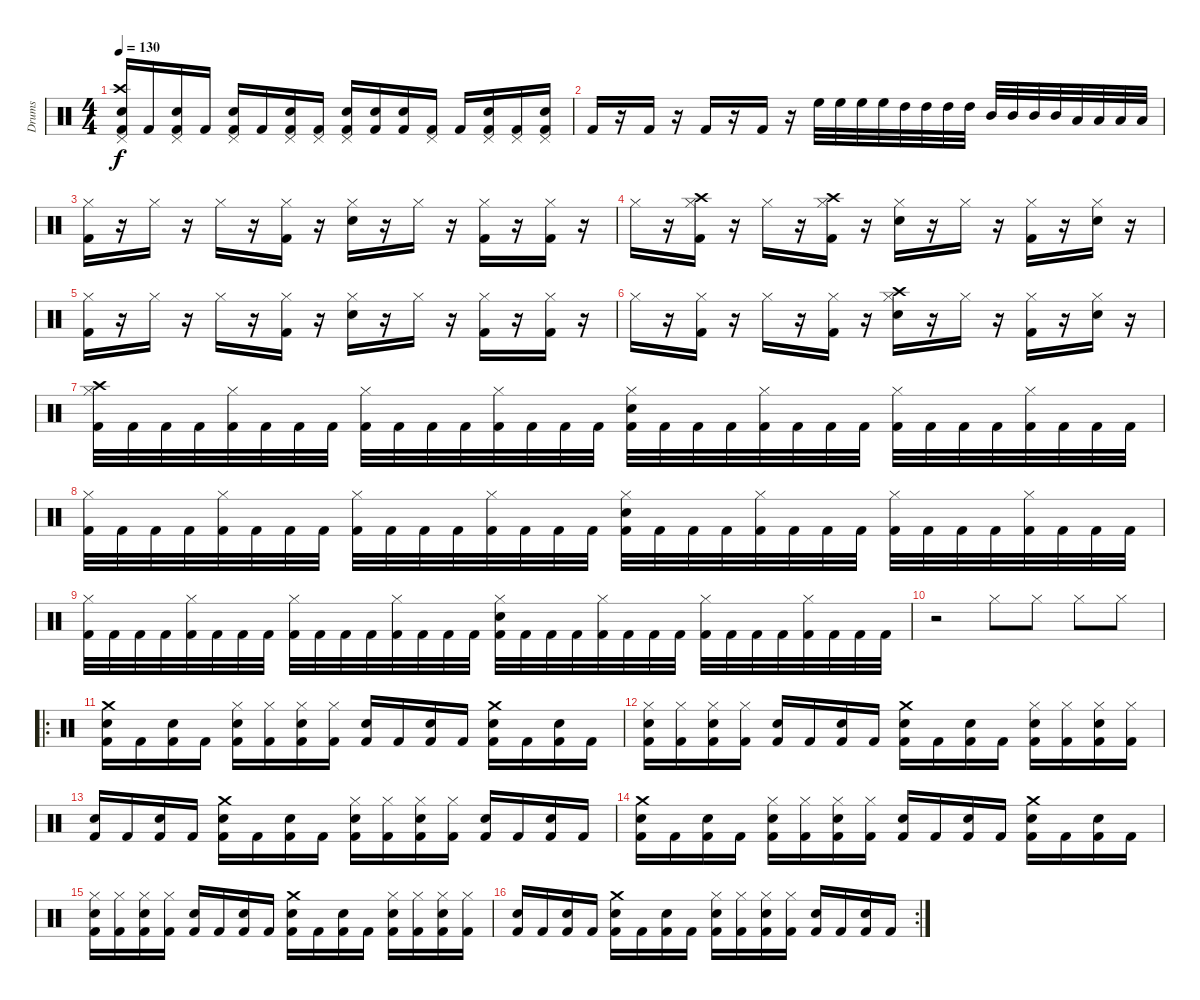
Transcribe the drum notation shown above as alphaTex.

\track ("Drums" "Drums") {instrument percussion}
\staff {score}
\articulation defaults
\ts (4 4)
\tempo 130
\clef neutral
\ks c
("Pedal Hi-Hat (hit)" "Crash high (hit)" "Electric Snare (hit)" "Kick (hit) 2").16{dy f} "Kick (hit) 2".16 ("Pedal Hi-Hat (hit)" "Electric Snare (hit)" "Kick (hit) 2").16 "Kick (hit) 2".16 ("Pedal Hi-Hat (hit)" "Electric Snare (hit)" "Kick (hit) 2").16 "Kick (hit) 2".16 ("Pedal Hi-Hat (hit)" "Electric Snare (hit)" "Kick (hit) 2").16 ("Pedal Hi-Hat (hit)" "Kick (hit) 2").16 ("Pedal Hi-Hat (hit)" "Electric Snare (hit)" "Kick (hit) 2").16 ("Snare (hit)" "Kick (hit) 2").16 ("Electric Snare (hit)" "Kick (hit) 2").16 ("Pedal Hi-Hat (hit)" "Kick (hit) 2").16 "Kick (hit) 2".16 ("Pedal Hi-Hat (hit)" "Electric Snare (hit)" "Kick (hit) 2").16 ("Pedal Hi-Hat (hit)" "Kick (hit) 2").16 ("Pedal Hi-Hat (hit)" "Electric Snare (hit)" "Kick (hit) 2").16 |
"Kick (hit) 2".16 r.16 "Kick (hit) 2".16 r.16 "Kick (hit) 2".16 r.16 "Kick (hit) 2".16 r.16 "High Floor Tom (hit)".32 "High Floor Tom (hit)".32 "High Floor Tom (hit)".32 "High Floor Tom (hit)".32 "High Tom (hit)".32 "High Tom (hit)".32 "High Tom (hit)".32 "High Tom (hit)".32 "Mid Tom (hit)".32 "Mid Tom (hit)".32 "Mid Tom (hit)".32 "Mid Tom (hit)".32 "Low Tom (hit)".32 "Low Tom (hit)".32 "Low Tom (hit)".32 "Low Tom (hit)".32 |
("Hi-Hat (closed)" "Kick (hit) 2").16 r.16 "Hi-Hat (closed)".16 r.16 "Hi-Hat (closed)".16 r.16 ("Hi-Hat (closed)" "Kick (hit) 2").16 r.16 ("Hi-Hat (closed)" "Electric Snare (hit)").16 r.16 "Hi-Hat (closed)".16 r.16 ("Hi-Hat (closed)" "Kick (hit) 2").16 r.16 ("Hi-Hat (closed)" "Kick (hit) 2").16 r.16 |
"Hi-Hat (closed)".16 r.16 ("Hi-Hat (closed)" "Crash high (hit)" "Kick (hit) 2").16 r.16 "Hi-Hat (closed)".16 r.16 ("Hi-Hat (closed)" "Crash high (hit)" "Kick (hit) 2").16 r.16 ("Hi-Hat (closed)" "Electric Snare (hit)").16 r.16 "Hi-Hat (closed)".16 r.16 ("Hi-Hat (closed)" "Kick (hit) 2").16 r.16 ("Hi-Hat (closed)" "Electric Snare (hit)").16 r.16 |
("Hi-Hat (closed)" "Kick (hit) 2").16 r.16 "Hi-Hat (closed)".16 r.16 "Hi-Hat (closed)".16 r.16 ("Hi-Hat (closed)" "Kick (hit) 2").16 r.16 ("Hi-Hat (closed)" "Electric Snare (hit)").16 r.16 "Hi-Hat (closed)".16 r.16 ("Hi-Hat (closed)" "Kick (hit) 2").16 r.16 ("Hi-Hat (closed)" "Kick (hit) 2").16 r.16 |
"Hi-Hat (closed)".16 r.16 ("Hi-Hat (closed)" "Kick (hit) 2").16 r.16 "Hi-Hat (closed)".16 r.16 ("Hi-Hat (closed)" "Kick (hit) 2").16 r.16 ("Hi-Hat (closed)" "Crash high (hit)" "Electric Snare (hit)").16 r.16 "Hi-Hat (closed)".16 r.16 ("Hi-Hat (closed)" "Kick (hit) 2").16 r.16 ("Hi-Hat (closed)" "Electric Snare (hit)").16 r.16 |
("Hi-Hat (closed)" "Crash high (hit)" "Kick (hit) 2").32 "Kick (hit) 2".32 "Kick (hit) 2".32 "Kick (hit) 2".32 ("Hi-Hat (closed)" "Kick (hit) 2").32 "Kick (hit) 2".32 "Kick (hit) 2".32 "Kick (hit) 2".32 ("Hi-Hat (closed)" "Kick (hit) 2").32 "Kick (hit) 2".32 "Kick (hit) 2".32 "Kick (hit) 2".32 ("Hi-Hat (closed)" "Kick (hit) 2").32 "Kick (hit) 2".32 "Kick (hit) 2".32 "Kick (hit) 2".32 ("Hi-Hat (closed)" "Electric Snare (hit)" "Kick (hit) 2").32 "Kick (hit) 2".32 "Kick (hit) 2".32 "Kick (hit) 2".32 ("Hi-Hat (closed)" "Kick (hit) 2").32 "Kick (hit) 2".32 "Kick (hit) 2".32 "Kick (hit) 2".32 ("Hi-Hat (closed)" "Kick (hit) 2").32 "Kick (hit) 2".32 "Kick (hit) 2".32 "Kick (hit) 2".32 ("Hi-Hat (closed)" "Kick (hit) 2").32 "Kick (hit) 2".32 "Kick (hit) 2".32 "Kick (hit) 2".32 |
("Hi-Hat (closed)" "Kick (hit) 2").32 "Kick (hit) 2".32 "Kick (hit) 2".32 "Kick (hit) 2".32 ("Hi-Hat (closed)" "Kick (hit) 2").32 "Kick (hit) 2".32 "Kick (hit) 2".32 "Kick (hit) 2".32 ("Hi-Hat (closed)" "Kick (hit) 2").32 "Kick (hit) 2".32 "Kick (hit) 2".32 "Kick (hit) 2".32 ("Hi-Hat (closed)" "Kick (hit) 2").32 "Kick (hit) 2".32 "Kick (hit) 2".32 "Kick (hit) 2".32 ("Hi-Hat (closed)" "Electric Snare (hit)" "Kick (hit) 2").32 "Kick (hit) 2".32 "Kick (hit) 2".32 "Kick (hit) 2".32 ("Hi-Hat (closed)" "Kick (hit) 2").32 "Kick (hit) 2".32 "Kick (hit) 2".32 "Kick (hit) 2".32 ("Hi-Hat (closed)" "Kick (hit) 2").32 "Kick (hit) 2".32 "Kick (hit) 2".32 "Kick (hit) 2".32 ("Hi-Hat (closed)" "Kick (hit) 2").32 "Kick (hit) 2".32 "Kick (hit) 2".32 "Kick (hit) 2".32 |
("Hi-Hat (closed)" "Kick (hit) 2").32 "Kick (hit) 2".32 "Kick (hit) 2".32 "Kick (hit) 2".32 ("Hi-Hat (closed)" "Kick (hit) 2").32 "Kick (hit) 2".32 "Kick (hit) 2".32 "Kick (hit) 2".32 ("Hi-Hat (closed)" "Kick (hit) 2").32 "Kick (hit) 2".32 "Kick (hit) 2".32 "Kick (hit) 2".32 ("Hi-Hat (closed)" "Kick (hit) 2").32 "Kick (hit) 2".32 "Kick (hit) 2".32 "Kick (hit) 2".32 ("Hi-Hat (closed)" "Electric Snare (hit)" "Kick (hit) 2").32 "Kick (hit) 2".32 "Kick (hit) 2".32 "Kick (hit) 2".32 ("Hi-Hat (closed)" "Kick (hit) 2").32 "Kick (hit) 2".32 "Kick (hit) 2".32 "Kick (hit) 2".32 ("Hi-Hat (closed)" "Kick (hit) 2").32 "Kick (hit) 2".32 "Kick (hit) 2".32 "Kick (hit) 2".32 ("Hi-Hat (closed)" "Kick (hit) 2").32 "Kick (hit) 2".32 "Kick (hit) 2".32 "Kick (hit) 2".32 |
r.2 "Hi-Hat (closed)".8 "Hi-Hat (closed)".8 "Hi-Hat (closed)".8 "Hi-Hat (closed)".8 |
\ro
("Crash medium (hit)" "Electric Snare (hit)" "Kick (hit) 2").16 "Kick (hit) 2".16 ("Electric Snare (hit)" "Kick (hit) 2").16 "Kick (hit) 2".16 ("Hi-Hat (closed)" "Electric Snare (hit)" "Kick (hit) 2").16 ("Hi-Hat (closed)" "Kick (hit) 2").16 ("Hi-Hat (closed)" "Electric Snare (hit)" "Kick (hit) 2").16 ("Hi-Hat (closed)" "Kick (hit) 2").16 ("Electric Snare (hit)" "Kick (hit) 2").16 "Kick (hit) 2".16 ("Electric Snare (hit)" "Kick (hit) 2").16 "Kick (hit) 2".16 ("Crash medium (hit)" "Electric Snare (hit)" "Kick (hit) 2").16 "Kick (hit) 2".16 ("Electric Snare (hit)" "Kick (hit) 2").16 "Kick (hit) 2".16 |
("Hi-Hat (closed)" "Electric Snare (hit)" "Kick (hit) 2").16 ("Hi-Hat (closed)" "Kick (hit) 2").16 ("Hi-Hat (closed)" "Electric Snare (hit)" "Kick (hit) 2").16 ("Hi-Hat (closed)" "Kick (hit) 2").16 ("Electric Snare (hit)" "Kick (hit) 2").16 "Kick (hit) 2".16 ("Electric Snare (hit)" "Kick (hit) 2").16 "Kick (hit) 2".16 ("Crash medium (hit)" "Electric Snare (hit)" "Kick (hit) 2").16 "Kick (hit) 2".16 ("Electric Snare (hit)" "Kick (hit) 2").16 "Kick (hit) 2".16 ("Hi-Hat (closed)" "Electric Snare (hit)" "Kick (hit) 2").16 ("Hi-Hat (closed)" "Kick (hit) 2").16 ("Hi-Hat (closed)" "Electric Snare (hit)" "Kick (hit) 2").16 ("Hi-Hat (closed)" "Kick (hit) 2").16 |
("Electric Snare (hit)" "Kick (hit) 2").16 "Kick (hit) 2".16 ("Electric Snare (hit)" "Kick (hit) 2").16 "Kick (hit) 2".16 ("Crash medium (hit)" "Electric Snare (hit)" "Kick (hit) 2").16 "Kick (hit) 2".16 ("Electric Snare (hit)" "Kick (hit) 2").16 "Kick (hit) 2".16 ("Hi-Hat (closed)" "Electric Snare (hit)" "Kick (hit) 2").16 ("Hi-Hat (closed)" "Kick (hit) 2").16 ("Hi-Hat (closed)" "Electric Snare (hit)" "Kick (hit) 2").16 ("Hi-Hat (closed)" "Kick (hit) 2").16 ("Electric Snare (hit)" "Kick (hit) 2").16 "Kick (hit) 2".16 ("Electric Snare (hit)" "Kick (hit) 2").16 "Kick (hit) 2".16 |
("Crash medium (hit)" "Electric Snare (hit)" "Kick (hit) 2").16 "Kick (hit) 2".16 ("Electric Snare (hit)" "Kick (hit) 2").16 "Kick (hit) 2".16 ("Hi-Hat (closed)" "Electric Snare (hit)" "Kick (hit) 2").16 ("Hi-Hat (closed)" "Kick (hit) 2").16 ("Hi-Hat (closed)" "Electric Snare (hit)" "Kick (hit) 2").16 ("Hi-Hat (closed)" "Kick (hit) 2").16 ("Electric Snare (hit)" "Kick (hit) 2").16 "Kick (hit) 2".16 ("Electric Snare (hit)" "Kick (hit) 2").16 "Kick (hit) 2".16 ("Crash medium (hit)" "Electric Snare (hit)" "Kick (hit) 2").16 "Kick (hit) 2".16 ("Electric Snare (hit)" "Kick (hit) 2").16 "Kick (hit) 2".16 |
("Hi-Hat (closed)" "Electric Snare (hit)" "Kick (hit) 2").16 ("Hi-Hat (closed)" "Kick (hit) 2").16 ("Hi-Hat (closed)" "Electric Snare (hit)" "Kick (hit) 2").16 ("Hi-Hat (closed)" "Kick (hit) 2").16 ("Electric Snare (hit)" "Kick (hit) 2").16 "Kick (hit) 2".16 ("Electric Snare (hit)" "Kick (hit) 2").16 "Kick (hit) 2".16 ("Crash medium (hit)" "Electric Snare (hit)" "Kick (hit) 2").16 "Kick (hit) 2".16 ("Electric Snare (hit)" "Kick (hit) 2").16 "Kick (hit) 2".16 ("Hi-Hat (closed)" "Electric Snare (hit)" "Kick (hit) 2").16 ("Hi-Hat (closed)" "Kick (hit) 2").16 ("Hi-Hat (closed)" "Electric Snare (hit)" "Kick (hit) 2").16 ("Hi-Hat (closed)" "Kick (hit) 2").16 |
\rc 2
("Electric Snare (hit)" "Kick (hit) 2").16 "Kick (hit) 2".16 ("Electric Snare (hit)" "Kick (hit) 2").16 "Kick (hit) 2".16 ("Crash medium (hit)" "Electric Snare (hit)" "Kick (hit) 2").16 "Kick (hit) 2".16 ("Electric Snare (hit)" "Kick (hit) 2").16 "Kick (hit) 2".16 ("Hi-Hat (closed)" "Electric Snare (hit)" "Kick (hit) 2").16 ("Hi-Hat (closed)" "Kick (hit) 2").16 ("Hi-Hat (closed)" "Electric Snare (hit)" "Kick (hit) 2").16 ("Hi-Hat (closed)" "Kick (hit) 2").16 ("Electric Snare (hit)" "Kick (hit) 2").16 "Kick (hit) 2".16 ("Electric Snare (hit)" "Kick (hit) 2").16 "Kick (hit) 2".16
